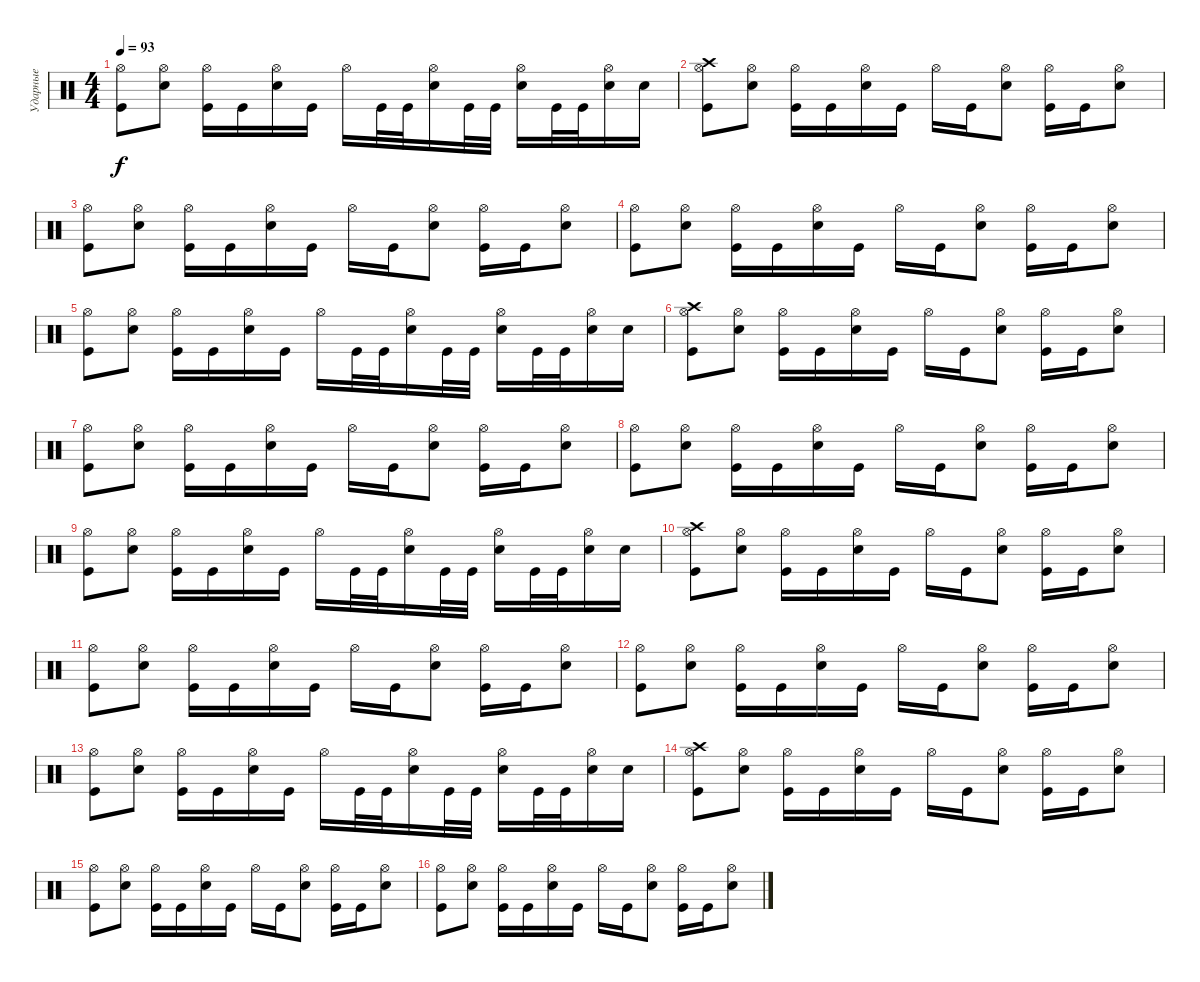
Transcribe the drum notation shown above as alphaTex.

\track ("Ударные" "Ударные") {instrument percussion}
\staff {score}
\articulation defaults
\ts (4 4)
\tempo 93
\clef neutral
\ks c
("Kick (hit)" "Hi-Hat (open)").8{dy f} ("Hi-Hat (open)" "Snare (hit) 2").8 ("Kick (hit)" "Hi-Hat (open)").16 "Kick (hit)".16 ("Snare (hit) 2" "Hi-Hat (open)").16 "Kick (hit)".16 "Hi-Hat (open)".16 "Kick (hit)".32 "Kick (hit)".32 ("Hi-Hat (open)" "Snare (hit) 2").16 "Kick (hit)".32 "Kick (hit)".32 ("Hi-Hat (open)" "Snare (hit) 2").16 "Kick (hit)".32 "Kick (hit)".32 ("Hi-Hat (open)" "Snare (hit) 2").16 "Snare (hit) 2".16 |
("Kick (hit)" "Hi-Hat (open)" "Crash high (hit)").8 ("Hi-Hat (open)" "Snare (hit) 2").8 ("Kick (hit)" "Hi-Hat (open)").16 "Kick (hit)".16 ("Snare (hit) 2" "Hi-Hat (open)").16 "Kick (hit)".16 "Hi-Hat (open)".16 "Kick (hit)".16 ("Hi-Hat (open)" "Snare (hit) 2").8 ("Kick (hit)" "Hi-Hat (open)").16 "Kick (hit)".16 ("Snare (hit) 2" "Hi-Hat (open)").8 |
("Kick (hit)" "Hi-Hat (open)").8 ("Hi-Hat (open)" "Snare (hit) 2").8 ("Kick (hit)" "Hi-Hat (open)").16 "Kick (hit)".16 ("Snare (hit) 2" "Hi-Hat (open)").16 "Kick (hit)".16 "Hi-Hat (open)".16 "Kick (hit)".16 ("Hi-Hat (open)" "Snare (hit) 2").8 ("Kick (hit)" "Hi-Hat (open)").16 "Kick (hit)".16 ("Snare (hit) 2" "Hi-Hat (open)").8 |
("Kick (hit)" "Hi-Hat (open)").8 ("Hi-Hat (open)" "Snare (hit) 2").8 ("Kick (hit)" "Hi-Hat (open)").16 "Kick (hit)".16 ("Snare (hit) 2" "Hi-Hat (open)").16 "Kick (hit)".16 "Hi-Hat (open)".16 "Kick (hit)".16 ("Hi-Hat (open)" "Snare (hit) 2").8 ("Kick (hit)" "Hi-Hat (open)").16 "Kick (hit)".16 ("Snare (hit) 2" "Hi-Hat (open)").8 |
("Kick (hit)" "Hi-Hat (open)").8 ("Hi-Hat (open)" "Snare (hit) 2").8 ("Kick (hit)" "Hi-Hat (open)").16 "Kick (hit)".16 ("Snare (hit) 2" "Hi-Hat (open)").16 "Kick (hit)".16 "Hi-Hat (open)".16 "Kick (hit)".32 "Kick (hit)".32 ("Hi-Hat (open)" "Snare (hit) 2").16 "Kick (hit)".32 "Kick (hit)".32 ("Hi-Hat (open)" "Snare (hit) 2").16 "Kick (hit)".32 "Kick (hit)".32 ("Hi-Hat (open)" "Snare (hit) 2").16 "Snare (hit) 2".16 |
("Kick (hit)" "Hi-Hat (open)" "Crash high (hit)").8 ("Hi-Hat (open)" "Snare (hit) 2").8 ("Kick (hit)" "Hi-Hat (open)").16 "Kick (hit)".16 ("Snare (hit) 2" "Hi-Hat (open)").16 "Kick (hit)".16 "Hi-Hat (open)".16 "Kick (hit)".16 ("Hi-Hat (open)" "Snare (hit) 2").8 ("Kick (hit)" "Hi-Hat (open)").16 "Kick (hit)".16 ("Snare (hit) 2" "Hi-Hat (open)").8 |
("Kick (hit)" "Hi-Hat (open)").8 ("Hi-Hat (open)" "Snare (hit) 2").8 ("Kick (hit)" "Hi-Hat (open)").16 "Kick (hit)".16 ("Snare (hit) 2" "Hi-Hat (open)").16 "Kick (hit)".16 "Hi-Hat (open)".16 "Kick (hit)".16 ("Hi-Hat (open)" "Snare (hit) 2").8 ("Kick (hit)" "Hi-Hat (open)").16 "Kick (hit)".16 ("Snare (hit) 2" "Hi-Hat (open)").8 |
("Kick (hit)" "Hi-Hat (open)").8 ("Hi-Hat (open)" "Snare (hit) 2").8 ("Kick (hit)" "Hi-Hat (open)").16 "Kick (hit)".16 ("Snare (hit) 2" "Hi-Hat (open)").16 "Kick (hit)".16 "Hi-Hat (open)".16 "Kick (hit)".16 ("Hi-Hat (open)" "Snare (hit) 2").8 ("Kick (hit)" "Hi-Hat (open)").16 "Kick (hit)".16 ("Snare (hit) 2" "Hi-Hat (open)").8 |
("Kick (hit)" "Hi-Hat (open)").8 ("Hi-Hat (open)" "Snare (hit) 2").8 ("Kick (hit)" "Hi-Hat (open)").16 "Kick (hit)".16 ("Snare (hit) 2" "Hi-Hat (open)").16 "Kick (hit)".16 "Hi-Hat (open)".16 "Kick (hit)".32 "Kick (hit)".32 ("Hi-Hat (open)" "Snare (hit) 2").16 "Kick (hit)".32 "Kick (hit)".32 ("Hi-Hat (open)" "Snare (hit) 2").16 "Kick (hit)".32 "Kick (hit)".32 ("Hi-Hat (open)" "Snare (hit) 2").16 "Snare (hit) 2".16 |
("Kick (hit)" "Hi-Hat (open)" "Crash high (hit)").8 ("Hi-Hat (open)" "Snare (hit) 2").8 ("Kick (hit)" "Hi-Hat (open)").16 "Kick (hit)".16 ("Snare (hit) 2" "Hi-Hat (open)").16 "Kick (hit)".16 "Hi-Hat (open)".16 "Kick (hit)".16 ("Hi-Hat (open)" "Snare (hit) 2").8 ("Kick (hit)" "Hi-Hat (open)").16 "Kick (hit)".16 ("Snare (hit) 2" "Hi-Hat (open)").8 |
("Kick (hit)" "Hi-Hat (open)").8 ("Hi-Hat (open)" "Snare (hit) 2").8 ("Kick (hit)" "Hi-Hat (open)").16 "Kick (hit)".16 ("Snare (hit) 2" "Hi-Hat (open)").16 "Kick (hit)".16 "Hi-Hat (open)".16 "Kick (hit)".16 ("Hi-Hat (open)" "Snare (hit) 2").8 ("Kick (hit)" "Hi-Hat (open)").16 "Kick (hit)".16 ("Snare (hit) 2" "Hi-Hat (open)").8 |
("Kick (hit)" "Hi-Hat (open)").8 ("Hi-Hat (open)" "Snare (hit) 2").8 ("Kick (hit)" "Hi-Hat (open)").16 "Kick (hit)".16 ("Snare (hit) 2" "Hi-Hat (open)").16 "Kick (hit)".16 "Hi-Hat (open)".16 "Kick (hit)".16 ("Hi-Hat (open)" "Snare (hit) 2").8 ("Kick (hit)" "Hi-Hat (open)").16 "Kick (hit)".16 ("Snare (hit) 2" "Hi-Hat (open)").8 |
("Kick (hit)" "Hi-Hat (open)").8 ("Hi-Hat (open)" "Snare (hit) 2").8 ("Kick (hit)" "Hi-Hat (open)").16 "Kick (hit)".16 ("Snare (hit) 2" "Hi-Hat (open)").16 "Kick (hit)".16 "Hi-Hat (open)".16 "Kick (hit)".32 "Kick (hit)".32 ("Hi-Hat (open)" "Snare (hit) 2").16 "Kick (hit)".32 "Kick (hit)".32 ("Hi-Hat (open)" "Snare (hit) 2").16 "Kick (hit)".32 "Kick (hit)".32 ("Hi-Hat (open)" "Snare (hit) 2").16 "Snare (hit) 2".16 |
("Kick (hit)" "Hi-Hat (open)" "Crash high (hit)").8 ("Hi-Hat (open)" "Snare (hit) 2").8 ("Kick (hit)" "Hi-Hat (open)").16 "Kick (hit)".16 ("Snare (hit) 2" "Hi-Hat (open)").16 "Kick (hit)".16 "Hi-Hat (open)".16 "Kick (hit)".16 ("Hi-Hat (open)" "Snare (hit) 2").8 ("Kick (hit)" "Hi-Hat (open)").16 "Kick (hit)".16 ("Snare (hit) 2" "Hi-Hat (open)").8 |
("Kick (hit)" "Hi-Hat (open)").8 ("Hi-Hat (open)" "Snare (hit) 2").8 ("Kick (hit)" "Hi-Hat (open)").16 "Kick (hit)".16 ("Snare (hit) 2" "Hi-Hat (open)").16 "Kick (hit)".16 "Hi-Hat (open)".16 "Kick (hit)".16 ("Hi-Hat (open)" "Snare (hit) 2").8 ("Kick (hit)" "Hi-Hat (open)").16 "Kick (hit)".16 ("Snare (hit) 2" "Hi-Hat (open)").8 |
("Kick (hit)" "Hi-Hat (open)").8 ("Hi-Hat (open)" "Snare (hit) 2").8 ("Kick (hit)" "Hi-Hat (open)").16 "Kick (hit)".16 ("Snare (hit) 2" "Hi-Hat (open)").16 "Kick (hit)".16 "Hi-Hat (open)".16 "Kick (hit)".16 ("Hi-Hat (open)" "Snare (hit) 2").8 ("Kick (hit)" "Hi-Hat (open)").16 "Kick (hit)".16 ("Snare (hit) 2" "Hi-Hat (open)").8
